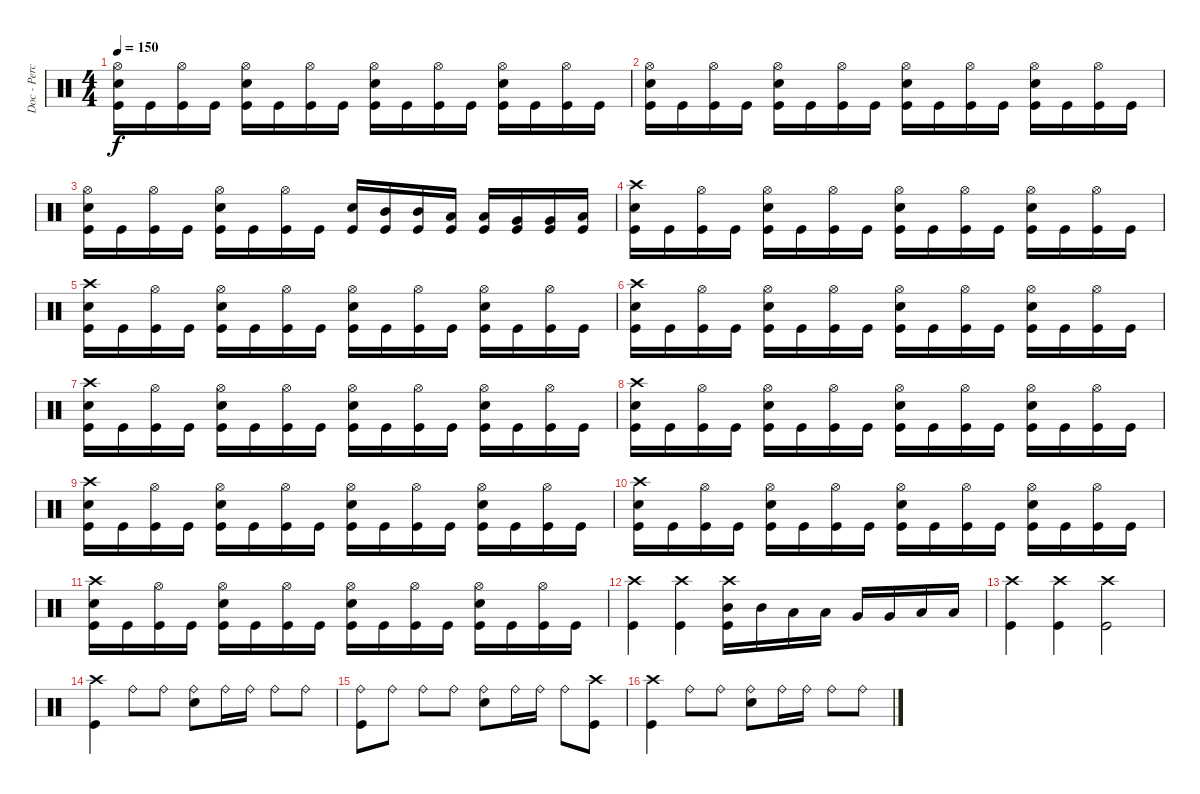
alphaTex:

\track ("Doc - Percussion" "Doc - Perc") {instrument percussion}
\staff {score}
\articulation defaults
\ts (4 4)
\tempo 150
\clef neutral
\ks c
("Hi-Hat (open)" "Electric Snare (hit)" "Kick (hit)").16{dy f} "Kick (hit)".16 ("Hi-Hat (open)" "Kick (hit)").16 "Kick (hit)".16 ("Hi-Hat (open)" "Electric Snare (hit)" "Kick (hit)").16 "Kick (hit)".16 ("Hi-Hat (open)" "Kick (hit)").16 "Kick (hit)".16 ("Hi-Hat (open)" "Electric Snare (hit)" "Kick (hit)").16 "Kick (hit)".16 ("Hi-Hat (open)" "Kick (hit)").16 "Kick (hit)".16 ("Hi-Hat (open)" "Electric Snare (hit)" "Kick (hit)").16 "Kick (hit)".16 ("Hi-Hat (open)" "Kick (hit)").16 "Kick (hit)".16 |
("Hi-Hat (open)" "Electric Snare (hit)" "Kick (hit)").16 "Kick (hit)".16 ("Hi-Hat (open)" "Kick (hit)").16 "Kick (hit)".16 ("Hi-Hat (open)" "Electric Snare (hit)" "Kick (hit)").16 "Kick (hit)".16 ("Hi-Hat (open)" "Kick (hit)").16 "Kick (hit)".16 ("Hi-Hat (open)" "Electric Snare (hit)" "Kick (hit)").16 "Kick (hit)".16 ("Hi-Hat (open)" "Kick (hit)").16 "Kick (hit)".16 ("Hi-Hat (open)" "Electric Snare (hit)" "Kick (hit)").16 "Kick (hit)".16 ("Hi-Hat (open)" "Kick (hit)").16 "Kick (hit)".16 |
("Hi-Hat (open)" "Electric Snare (hit)" "Kick (hit)").16 "Kick (hit)".16 ("Hi-Hat (open)" "Kick (hit)").16 "Kick (hit)".16 ("Hi-Hat (open)" "Electric Snare (hit)" "Kick (hit)").16 "Kick (hit)".16 ("Hi-Hat (open)" "Kick (hit)").16 "Kick (hit)".16 ("Electric Snare (hit)" "Kick (hit)").16 ("Mid Tom (hit)" "Kick (hit)").16 ("Mid Tom (hit)" "Kick (hit)").16 ("Low Tom (hit)" "Kick (hit)").16 ("Low Tom (hit)" "Kick (hit)").16 ("Very Low Tom (hit)" "Kick (hit)").16 ("Very Low Tom (hit)" "Kick (hit)").16 ("Low Floor Tom (hit)" "Kick (hit)").16 |
("Crash high (hit)" "Electric Snare (hit)" "Kick (hit)").16 "Kick (hit)".16 ("Hi-Hat (open)" "Kick (hit)").16 "Kick (hit)".16 ("Hi-Hat (open)" "Electric Snare (hit)" "Kick (hit)").16 "Kick (hit)".16 ("Hi-Hat (open)" "Kick (hit)").16 "Kick (hit)".16 ("Hi-Hat (open)" "Electric Snare (hit)" "Kick (hit)").16 "Kick (hit)".16 ("Hi-Hat (open)" "Kick (hit)").16 "Kick (hit)".16 ("Hi-Hat (open)" "Electric Snare (hit)" "Kick (hit)").16 "Kick (hit)".16 ("Hi-Hat (open)" "Kick (hit)").16 "Kick (hit)".16 |
("Crash high (hit)" "Electric Snare (hit)" "Kick (hit)").16 "Kick (hit)".16 ("Hi-Hat (open)" "Kick (hit)").16 "Kick (hit)".16 ("Hi-Hat (open)" "Electric Snare (hit)" "Kick (hit)").16 "Kick (hit)".16 ("Hi-Hat (open)" "Kick (hit)").16 "Kick (hit)".16 ("Hi-Hat (open)" "Electric Snare (hit)" "Kick (hit)").16 "Kick (hit)".16 ("Hi-Hat (open)" "Kick (hit)").16 "Kick (hit)".16 ("Hi-Hat (open)" "Electric Snare (hit)" "Kick (hit)").16 "Kick (hit)".16 ("Hi-Hat (open)" "Kick (hit)").16 "Kick (hit)".16 |
("Crash high (hit)" "Electric Snare (hit)" "Kick (hit)").16 "Kick (hit)".16 ("Hi-Hat (open)" "Kick (hit)").16 "Kick (hit)".16 ("Hi-Hat (open)" "Electric Snare (hit)" "Kick (hit)").16 "Kick (hit)".16 ("Hi-Hat (open)" "Kick (hit)").16 "Kick (hit)".16 ("Hi-Hat (open)" "Electric Snare (hit)" "Kick (hit)").16 "Kick (hit)".16 ("Hi-Hat (open)" "Kick (hit)").16 "Kick (hit)".16 ("Hi-Hat (open)" "Electric Snare (hit)" "Kick (hit)").16 "Kick (hit)".16 ("Hi-Hat (open)" "Kick (hit)").16 "Kick (hit)".16 |
("Crash high (hit)" "Electric Snare (hit)" "Kick (hit)").16 "Kick (hit)".16 ("Hi-Hat (open)" "Kick (hit)").16 "Kick (hit)".16 ("Hi-Hat (open)" "Electric Snare (hit)" "Kick (hit)").16 "Kick (hit)".16 ("Hi-Hat (open)" "Kick (hit)").16 "Kick (hit)".16 ("Hi-Hat (open)" "Electric Snare (hit)" "Kick (hit)").16 "Kick (hit)".16 ("Hi-Hat (open)" "Kick (hit)").16 "Kick (hit)".16 ("Hi-Hat (open)" "Electric Snare (hit)" "Kick (hit)").16 "Kick (hit)".16 ("Hi-Hat (open)" "Kick (hit)").16 "Kick (hit)".16 |
("Crash high (hit)" "Electric Snare (hit)" "Kick (hit)").16 "Kick (hit)".16 ("Hi-Hat (open)" "Kick (hit)").16 "Kick (hit)".16 ("Hi-Hat (open)" "Electric Snare (hit)" "Kick (hit)").16 "Kick (hit)".16 ("Hi-Hat (open)" "Kick (hit)").16 "Kick (hit)".16 ("Hi-Hat (open)" "Electric Snare (hit)" "Kick (hit)").16 "Kick (hit)".16 ("Hi-Hat (open)" "Kick (hit)").16 "Kick (hit)".16 ("Hi-Hat (open)" "Electric Snare (hit)" "Kick (hit)").16 "Kick (hit)".16 ("Hi-Hat (open)" "Kick (hit)").16 "Kick (hit)".16 |
("Crash high (hit)" "Electric Snare (hit)" "Kick (hit)").16 "Kick (hit)".16 ("Hi-Hat (open)" "Kick (hit)").16 "Kick (hit)".16 ("Hi-Hat (open)" "Electric Snare (hit)" "Kick (hit)").16 "Kick (hit)".16 ("Hi-Hat (open)" "Kick (hit)").16 "Kick (hit)".16 ("Hi-Hat (open)" "Electric Snare (hit)" "Kick (hit)").16 "Kick (hit)".16 ("Hi-Hat (open)" "Kick (hit)").16 "Kick (hit)".16 ("Hi-Hat (open)" "Electric Snare (hit)" "Kick (hit)").16 "Kick (hit)".16 ("Hi-Hat (open)" "Kick (hit)").16 "Kick (hit)".16 |
("Crash high (hit)" "Electric Snare (hit)" "Kick (hit)").16 "Kick (hit)".16 ("Hi-Hat (open)" "Kick (hit)").16 "Kick (hit)".16 ("Hi-Hat (open)" "Electric Snare (hit)" "Kick (hit)").16 "Kick (hit)".16 ("Hi-Hat (open)" "Kick (hit)").16 "Kick (hit)".16 ("Hi-Hat (open)" "Electric Snare (hit)" "Kick (hit)").16 "Kick (hit)".16 ("Hi-Hat (open)" "Kick (hit)").16 "Kick (hit)".16 ("Hi-Hat (open)" "Electric Snare (hit)" "Kick (hit)").16 "Kick (hit)".16 ("Hi-Hat (open)" "Kick (hit)").16 "Kick (hit)".16 |
("Crash high (hit)" "Electric Snare (hit)" "Kick (hit)").16 "Kick (hit)".16 ("Hi-Hat (open)" "Kick (hit)").16 "Kick (hit)".16 ("Hi-Hat (open)" "Electric Snare (hit)" "Kick (hit)").16 "Kick (hit)".16 ("Hi-Hat (open)" "Kick (hit)").16 "Kick (hit)".16 ("Hi-Hat (open)" "Electric Snare (hit)" "Kick (hit)").16 "Kick (hit)".16 ("Hi-Hat (open)" "Kick (hit)").16 "Kick (hit)".16 ("Hi-Hat (open)" "Electric Snare (hit)" "Kick (hit)").16 "Kick (hit)".16 ("Hi-Hat (open)" "Kick (hit)").16 "Kick (hit)".16 |
("Crash high (hit)" "Kick (hit)").4 ("Crash high (hit)" "Kick (hit)").4 ("Crash high (hit)" "Mid Tom (hit)" "Kick (hit)").16 "Mid Tom (hit)".16 "Low Tom (hit)".16 "Low Tom (hit)".16 "Very Low Tom (hit)".16 "Very Low Tom (hit)".16 "Low Floor Tom (hit)".16 "Low Floor Tom (hit)".16 |
("Crash high (hit)" "Kick (hit)").4 ("Crash high (hit)" "Kick (hit)").4 ("Crash high (hit)" "Kick (hit)").2 |
("Crash high (hit)" "Kick (hit)").4 "Ride (bell)".8 "Ride (bell)".8 ("Ride (bell)" "Electric Snare (hit)").8 "Ride (bell)".16 "Ride (bell)".16 "Ride (bell)".8 "Ride (bell)".8 |
("Ride (bell)" "Kick (hit)").8 "Ride (bell)".8 "Ride (bell)".8 "Ride (bell)".8 ("Ride (bell)" "Electric Snare (hit)").8 "Ride (bell)".16 "Ride (bell)".16 "Ride (bell)".8 ("Crash high (hit)" "Kick (hit)").8 |
("Crash high (hit)" "Kick (hit)").4 "Ride (bell)".8 "Ride (bell)".8 ("Ride (bell)" "Electric Snare (hit)").8 "Ride (bell)".16 "Ride (bell)".16 "Ride (bell)".8 "Ride (bell)".8
